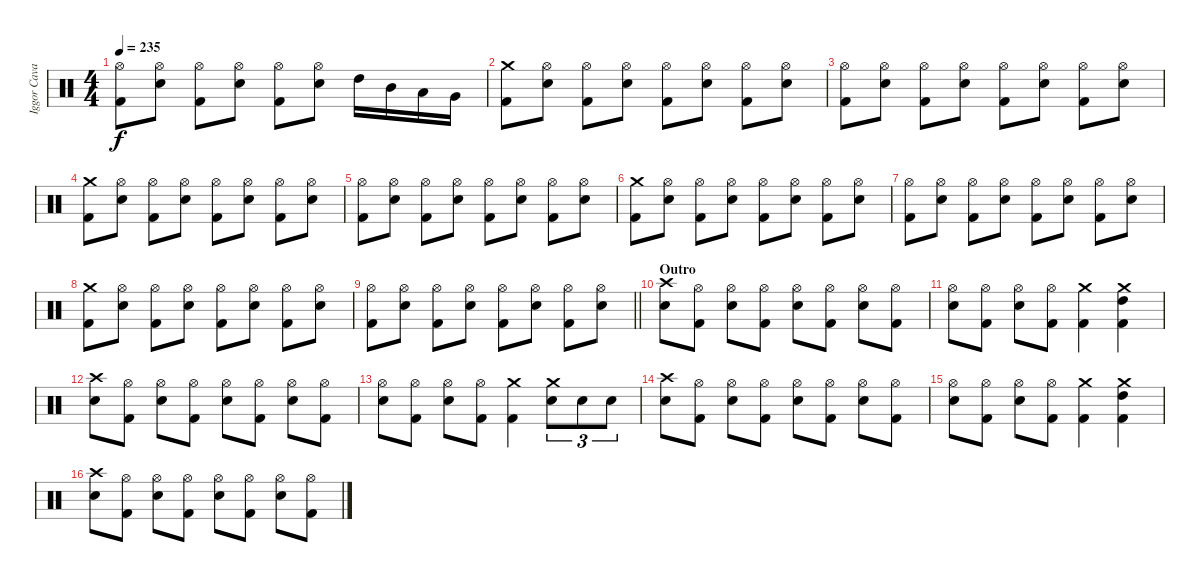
\track ("Iggor Cavalera" "Iggor Cava") {instrument percussion}
\staff {score}
\articulation defaults
\ts (4 4)
\tempo 235
\clef neutral
\ks c
("Hi-Hat (open)" "Kick (hit) 2").8{dy f} ("Hi-Hat (open)" "Snare (hit) 2").8 ("Hi-Hat (open)" "Kick (hit) 2").8 ("Hi-Hat (open)" "Snare (hit) 2").8 ("Hi-Hat (open)" "Kick (hit) 2").8 ("Hi-Hat (open)" "Snare (hit) 2").8 "High Tom (hit)".16 "Mid Tom (hit)".16 "Low Tom (hit)".16 "Very Low Tom (hit)".16 |
("Crash medium (hit)" "Kick (hit) 2").8 ("Hi-Hat (open)" "Snare (hit) 2").8 ("Hi-Hat (open)" "Kick (hit) 2").8 ("Hi-Hat (open)" "Snare (hit) 2").8 ("Hi-Hat (open)" "Kick (hit) 2").8 ("Hi-Hat (open)" "Snare (hit) 2").8 ("Hi-Hat (open)" "Kick (hit) 2").8 ("Hi-Hat (open)" "Snare (hit) 2").8 |
("Hi-Hat (open)" "Kick (hit) 2").8 ("Hi-Hat (open)" "Snare (hit) 2").8 ("Hi-Hat (open)" "Kick (hit) 2").8 ("Hi-Hat (open)" "Snare (hit) 2").8 ("Hi-Hat (open)" "Kick (hit) 2").8 ("Hi-Hat (open)" "Snare (hit) 2").8 ("Hi-Hat (open)" "Kick (hit) 2").8 ("Hi-Hat (open)" "Snare (hit) 2").8 |
("Crash medium (hit)" "Kick (hit) 2").8 ("Hi-Hat (open)" "Snare (hit) 2").8 ("Hi-Hat (open)" "Kick (hit) 2").8 ("Hi-Hat (open)" "Snare (hit) 2").8 ("Hi-Hat (open)" "Kick (hit) 2").8 ("Hi-Hat (open)" "Snare (hit) 2").8 ("Hi-Hat (open)" "Kick (hit) 2").8 ("Hi-Hat (open)" "Snare (hit) 2").8 |
("Hi-Hat (open)" "Kick (hit) 2").8 ("Hi-Hat (open)" "Snare (hit) 2").8 ("Hi-Hat (open)" "Kick (hit) 2").8 ("Hi-Hat (open)" "Snare (hit) 2").8 ("Hi-Hat (open)" "Kick (hit) 2").8 ("Hi-Hat (open)" "Snare (hit) 2").8 ("Hi-Hat (open)" "Kick (hit) 2").8 ("Hi-Hat (open)" "Snare (hit) 2").8 |
("Crash medium (hit)" "Kick (hit) 2").8 ("Hi-Hat (open)" "Snare (hit) 2").8 ("Hi-Hat (open)" "Kick (hit) 2").8 ("Hi-Hat (open)" "Snare (hit) 2").8 ("Hi-Hat (open)" "Kick (hit) 2").8 ("Hi-Hat (open)" "Snare (hit) 2").8 ("Hi-Hat (open)" "Kick (hit) 2").8 ("Hi-Hat (open)" "Snare (hit) 2").8 |
("Hi-Hat (open)" "Kick (hit) 2").8 ("Hi-Hat (open)" "Snare (hit) 2").8 ("Hi-Hat (open)" "Kick (hit) 2").8 ("Hi-Hat (open)" "Snare (hit) 2").8 ("Hi-Hat (open)" "Kick (hit) 2").8 ("Hi-Hat (open)" "Snare (hit) 2").8 ("Hi-Hat (open)" "Kick (hit) 2").8 ("Hi-Hat (open)" "Snare (hit) 2").8 |
("Crash medium (hit)" "Kick (hit) 2").8 ("Hi-Hat (open)" "Snare (hit) 2").8 ("Hi-Hat (open)" "Kick (hit) 2").8 ("Hi-Hat (open)" "Snare (hit) 2").8 ("Hi-Hat (open)" "Kick (hit) 2").8 ("Hi-Hat (open)" "Snare (hit) 2").8 ("Hi-Hat (open)" "Kick (hit) 2").8 ("Hi-Hat (open)" "Snare (hit) 2").8 |
\barLineRight lightlight
("Hi-Hat (open)" "Kick (hit) 2").8 ("Hi-Hat (open)" "Snare (hit) 2").8 ("Hi-Hat (open)" "Kick (hit) 2").8 ("Hi-Hat (open)" "Snare (hit) 2").8 ("Hi-Hat (open)" "Kick (hit) 2").8 ("Hi-Hat (open)" "Snare (hit) 2").8 ("Hi-Hat (open)" "Kick (hit) 2").8 ("Hi-Hat (open)" "Snare (hit) 2").8 |
\section ("" "Outro")
("Crash high (hit)" "Snare (hit) 2").8 ("Hi-Hat (open)" "Kick (hit) 2").8 ("Hi-Hat (open)" "Snare (hit) 2").8 ("Hi-Hat (open)" "Kick (hit) 2").8 ("Hi-Hat (open)" "Snare (hit) 2").8 ("Hi-Hat (open)" "Kick (hit) 2").8 ("Hi-Hat (open)" "Snare (hit) 2").8 ("Hi-Hat (open)" "Kick (hit) 2").8 |
("Hi-Hat (open)" "Snare (hit) 2").8 ("Hi-Hat (open)" "Kick (hit) 2").8 ("Hi-Hat (open)" "Snare (hit) 2").8 ("Hi-Hat (open)" "Kick (hit) 2").8 ("Crash medium (hit)" "Kick (hit) 2").4 ("Crash medium (hit)" "High Tom (hit)" "Kick (hit) 2").4 |
("Crash high (hit)" "Snare (hit) 2").8 ("Hi-Hat (open)" "Kick (hit) 2").8 ("Hi-Hat (open)" "Snare (hit) 2").8 ("Hi-Hat (open)" "Kick (hit) 2").8 ("Hi-Hat (open)" "Snare (hit) 2").8 ("Hi-Hat (open)" "Kick (hit) 2").8 ("Hi-Hat (open)" "Snare (hit) 2").8 ("Hi-Hat (open)" "Kick (hit) 2").8 |
("Hi-Hat (open)" "Snare (hit) 2").8 ("Hi-Hat (open)" "Kick (hit) 2").8 ("Hi-Hat (open)" "Snare (hit) 2").8 ("Hi-Hat (open)" "Kick (hit) 2").8 ("Crash medium (hit)" "Kick (hit) 2").4 ("Crash medium (hit)" "Snare (hit) 2").8{tu (3 2)} "Snare (hit) 2".8{tu (3 2)} "Snare (hit) 2".8{tu (3 2)} |
("Crash high (hit)" "Snare (hit) 2").8 ("Hi-Hat (open)" "Kick (hit) 2").8 ("Hi-Hat (open)" "Snare (hit) 2").8 ("Hi-Hat (open)" "Kick (hit) 2").8 ("Hi-Hat (open)" "Snare (hit) 2").8 ("Hi-Hat (open)" "Kick (hit) 2").8 ("Hi-Hat (open)" "Snare (hit) 2").8 ("Hi-Hat (open)" "Kick (hit) 2").8 |
("Hi-Hat (open)" "Snare (hit) 2").8 ("Hi-Hat (open)" "Kick (hit) 2").8 ("Hi-Hat (open)" "Snare (hit) 2").8 ("Hi-Hat (open)" "Kick (hit) 2").8 ("Crash medium (hit)" "Kick (hit) 2").4 ("Crash medium (hit)" "High Tom (hit)" "Kick (hit) 2").4 |
("Crash high (hit)" "Snare (hit) 2").8 ("Hi-Hat (open)" "Kick (hit) 2").8 ("Hi-Hat (open)" "Snare (hit) 2").8 ("Hi-Hat (open)" "Kick (hit) 2").8 ("Hi-Hat (open)" "Snare (hit) 2").8 ("Hi-Hat (open)" "Kick (hit) 2").8 ("Hi-Hat (open)" "Snare (hit) 2").8 ("Hi-Hat (open)" "Kick (hit) 2").8
